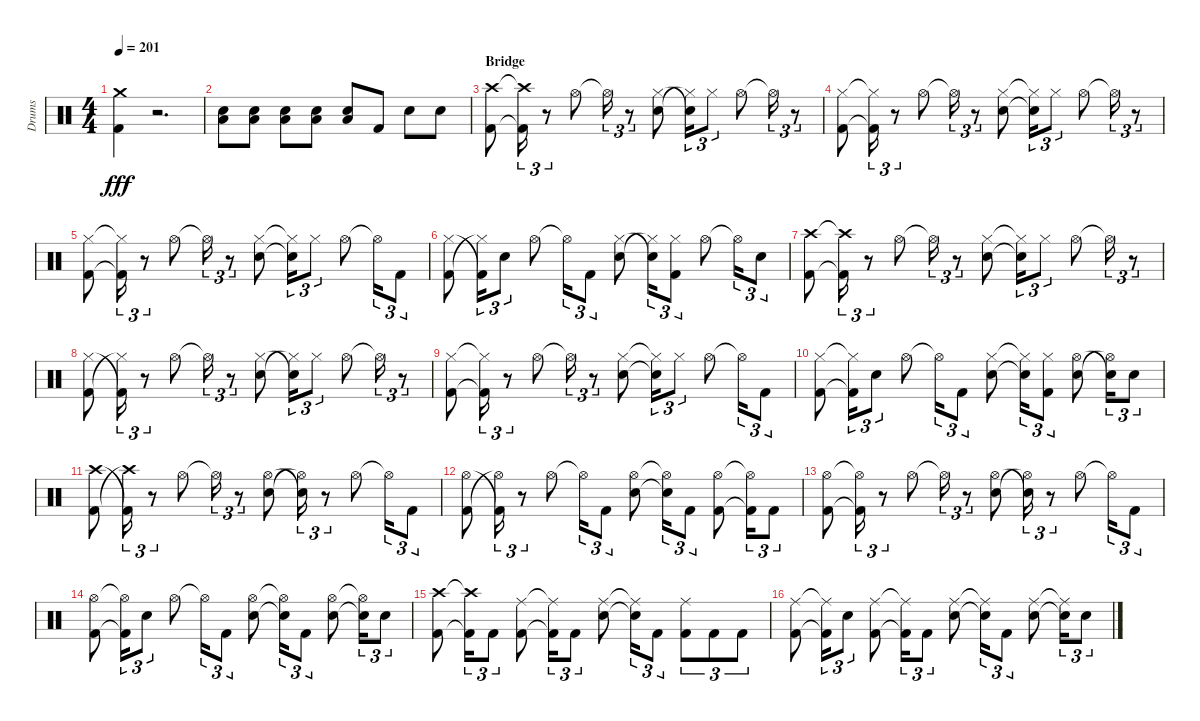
\track ("Drums" "Drums") {instrument percussion}
\staff {score}
\articulation defaults
\ts (4 4)
\tempo 201
\clef neutral
\ks aminor
("Kick (hit) 2" "Crash medium (hit)").4{dy fff} r.2{d} |
("Snare (hit) 2" "Low Floor Tom (hit)").8 ("Low Floor Tom (hit)" "Snare (hit) 2").8 ("Low Floor Tom (hit)" "Snare (hit) 2").8 ("Low Floor Tom (hit)" "Snare (hit) 2").8 ("Snare (hit) 2" "Low Floor Tom (hit)").8 "Kick (hit) 2".8 "Snare (hit) 2".8 "Snare (hit) 2".8 |
\section ("" "Bridge")
("Kick (hit) 2" "Crash high (hit)").8 ("Kick (hit) 2"{t} "Crash high (hit)"{t}).16{tu (3 2)} r.8{tu (3 2)} "Hi-Hat (open)".8 "Hi-Hat (open)"{t}.16{tu (3 2)} r.8{tu (3 2)} ("Hi-Hat (closed)" "Snare (hit) 2").8 ("Snare (hit) 2"{t} "Hi-Hat (closed)"{t}).16{tu (3 2)} "Hi-Hat (closed)".8{tu (3 2)} "Hi-Hat (open)".8 "Hi-Hat (open)"{t}.16{tu (3 2)} r.8{tu (3 2)} |
("Kick (hit) 2" "Hi-Hat (closed)").8 ("Kick (hit) 2"{t} "Hi-Hat (closed)"{t}).16{tu (3 2)} r.8{tu (3 2)} "Hi-Hat (open)".8 "Hi-Hat (open)"{t}.16{tu (3 2)} r.8{tu (3 2)} ("Snare (hit) 2" "Hi-Hat (closed)").8 ("Snare (hit) 2"{t} "Hi-Hat (closed)"{t}).16{tu (3 2)} "Hi-Hat (closed)".8{tu (3 2)} "Hi-Hat (open)".8 "Hi-Hat (open)"{t}.16{tu (3 2)} r.8{tu (3 2)} |
("Kick (hit) 2" "Hi-Hat (closed)").8 ("Kick (hit) 2"{t} "Hi-Hat (closed)"{t}).16{tu (3 2)} r.8{tu (3 2)} "Hi-Hat (open)".8 "Hi-Hat (open)"{t}.16{tu (3 2)} r.8{tu (3 2)} ("Hi-Hat (closed)" "Snare (hit) 2").8 ("Hi-Hat (closed)"{t} "Snare (hit) 2"{t}).16{tu (3 2)} "Hi-Hat (closed)".8{tu (3 2)} "Hi-Hat (open)".8 "Hi-Hat (open)"{t}.16{tu (3 2)} "Kick (hit) 2".8{tu (3 2)} |
("Kick (hit) 2" "Hi-Hat (closed)").8 ("Hi-Hat (closed)"{t} "Kick (hit) 2"{t}).16{tu (3 2)} "Snare (hit) 2".8{tu (3 2)} "Hi-Hat (open)".8 "Hi-Hat (open)"{t}.16{tu (3 2)} "Kick (hit) 2".8{tu (3 2)} ("Hi-Hat (closed)" "Snare (hit) 2").8 ("Snare (hit) 2"{t} "Hi-Hat (closed)"{t}).16{tu (3 2)} ("Hi-Hat (closed)" "Kick (hit) 2").8{tu (3 2)} "Hi-Hat (open)".8 "Hi-Hat (open)"{t}.16{tu (3 2)} "Snare (hit) 2".8{tu (3 2)} |
("Crash high (hit)" "Kick (hit) 2").8 ("Crash high (hit)"{t} "Kick (hit) 2"{t}).16{tu (3 2)} r.8{tu (3 2)} "Hi-Hat (open)".8 "Hi-Hat (open)"{t}.16{tu (3 2)} r.8{tu (3 2)} ("Snare (hit) 2" "Hi-Hat (closed)").8 ("Snare (hit) 2"{t} "Hi-Hat (closed)"{t}).16{tu (3 2)} "Hi-Hat (closed)".8{tu (3 2)} "Hi-Hat (open)".8 "Hi-Hat (open)"{t}.16{tu (3 2)} r.8{tu (3 2)} |
("Kick (hit) 2" "Hi-Hat (closed)").8 ("Hi-Hat (closed)"{t} "Kick (hit) 2"{t}).16{tu (3 2)} r.8{tu (3 2)} "Hi-Hat (open)".8 "Hi-Hat (open)"{t}.16{tu (3 2)} r.8{tu (3 2)} ("Hi-Hat (closed)" "Snare (hit) 2").8 ("Snare (hit) 2"{t} "Hi-Hat (closed)"{t}).16{tu (3 2)} "Hi-Hat (closed)".8{tu (3 2)} "Hi-Hat (open)".8 "Hi-Hat (open)"{t}.16{tu (3 2)} r.8{tu (3 2)} |
("Kick (hit) 2" "Hi-Hat (closed)").8 ("Kick (hit) 2"{t} "Hi-Hat (closed)"{t}).16{tu (3 2)} r.8{tu (3 2)} "Hi-Hat (open)".8 "Hi-Hat (open)"{t}.16{tu (3 2)} r.8{tu (3 2)} ("Snare (hit) 2" "Hi-Hat (closed)").8 ("Snare (hit) 2"{t} "Hi-Hat (closed)"{t}).16{tu (3 2)} "Hi-Hat (closed)".8{tu (3 2)} "Hi-Hat (open)".8 "Hi-Hat (open)"{t}.16{tu (3 2)} "Kick (hit) 2".8{tu (3 2)} |
("Kick (hit) 2" "Hi-Hat (closed)").8 ("Kick (hit) 2"{t} "Hi-Hat (closed)"{t}).16{tu (3 2)} "Snare (hit) 2".8{tu (3 2)} "Hi-Hat (open)".8 "Hi-Hat (open)"{t}.16{tu (3 2)} "Kick (hit) 2".8{tu (3 2)} ("Snare (hit) 2" "Hi-Hat (closed)").8 ("Snare (hit) 2"{t} "Hi-Hat (closed)"{t}).16{tu (3 2)} ("Kick (hit) 2" "Hi-Hat (closed)").8{tu (3 2)} ("Hi-Hat (open)" "Snare (hit) 2").8 ("Snare (hit) 2"{t} "Hi-Hat (open)"{t}).16{tu (3 2)} "Snare (hit) 2".8{tu (3 2)} |
("Crash high (hit)" "Kick (hit) 2").8 ("Kick (hit) 2"{t} "Crash high (hit)"{t}).16{tu (3 2)} r.8{tu (3 2)} "Hi-Hat (open)".8 "Hi-Hat (open)"{t}.16{tu (3 2)} r.8{tu (3 2)} ("Hi-Hat (open)" "Snare (hit) 2").8 ("Snare (hit) 2"{t} "Hi-Hat (open)"{t}).16{tu (3 2)} r.8{tu (3 2)} "Hi-Hat (open)".8 "Hi-Hat (open)"{t}.16{tu (3 2)} "Kick (hit) 2".8{tu (3 2)} |
("Kick (hit) 2" "Hi-Hat (open)").8 ("Hi-Hat (open)"{t} "Kick (hit) 2"{t}).16{tu (3 2)} r.8{tu (3 2)} "Hi-Hat (open)".8 "Hi-Hat (open)"{t}.16{tu (3 2)} "Kick (hit) 2".8{tu (3 2)} ("Snare (hit) 2" "Hi-Hat (open)").8 ("Snare (hit) 2"{t} "Hi-Hat (open)"{t}).16{tu (3 2)} "Kick (hit) 2".8{tu (3 2)} ("Kick (hit) 2" "Hi-Hat (open)").8 ("Kick (hit) 2"{t} "Hi-Hat (open)"{t}).16{tu (3 2)} "Kick (hit) 2".8{tu (3 2)} |
("Kick (hit) 2" "Hi-Hat (open)").8 ("Kick (hit) 2"{t} "Hi-Hat (open)"{t}).16{tu (3 2)} r.8{tu (3 2)} "Hi-Hat (open)".8 "Hi-Hat (open)"{t}.16{tu (3 2)} r.8{tu (3 2)} ("Hi-Hat (open)" "Snare (hit) 2").8 ("Snare (hit) 2"{t} "Hi-Hat (open)"{t}).16{tu (3 2)} r.8{tu (3 2)} "Hi-Hat (open)".8 "Hi-Hat (open)"{t}.16{tu (3 2)} "Kick (hit) 2".8{tu (3 2)} |
("Hi-Hat (open)" "Kick (hit) 2").8 ("Hi-Hat (open)"{t} "Kick (hit) 2"{t}).16{tu (3 2)} "Snare (hit) 2".8{tu (3 2)} "Hi-Hat (open)".8 "Hi-Hat (open)"{t}.16{tu (3 2)} "Kick (hit) 2".8{tu (3 2)} ("Snare (hit) 2" "Hi-Hat (open)").8 ("Snare (hit) 2"{t} "Hi-Hat (open)"{t}).16{tu (3 2)} "Kick (hit) 2".8{tu (3 2)} ("Hi-Hat (open)" "Snare (hit) 2").8 ("Hi-Hat (open)"{t} "Snare (hit) 2"{t}).16{tu (3 2)} "Snare (hit) 2".8{tu (3 2)} |
("Kick (hit) 2" "Crash high (hit)").8 ("Kick (hit) 2"{t} "Crash high (hit)"{t}).16{tu (3 2)} "Kick (hit) 2".8{tu (3 2)} ("Ride (middle)" "Kick (hit) 2").8 ("Ride (middle)"{t} "Kick (hit) 2"{t}).16{tu (3 2)} "Kick (hit) 2".8{tu (3 2)} ("Snare (hit) 2" "Ride (middle)").8 ("Snare (hit) 2"{t} "Ride (middle)"{t}).16{tu (3 2)} "Kick (hit) 2".8{tu (3 2)} ("Ride (middle)" "Kick (hit) 2").8{tu (3 2)} "Kick (hit) 2".8{tu (3 2)} "Kick (hit) 2".8{tu (3 2)} |
("Ride (middle)" "Kick (hit) 2").8 ("Ride (middle)"{t} "Kick (hit) 2"{t}).16{tu (3 2)} "Snare (hit) 2".8{tu (3 2)} ("Ride (middle)" "Kick (hit) 2").8 ("Ride (middle)"{t} "Kick (hit) 2"{t}).16{tu (3 2)} "Kick (hit) 2".8{tu (3 2)} ("Ride (middle)" "Snare (hit) 2").8 ("Ride (middle)"{t} "Snare (hit) 2"{t}).16{tu (3 2)} "Kick (hit) 2".8{tu (3 2)} ("Snare (hit) 2" "Ride (middle)").8 ("Snare (hit) 2"{t} "Ride (middle)"{t}).16{tu (3 2)} "Snare (hit) 2".8{tu (3 2)}
